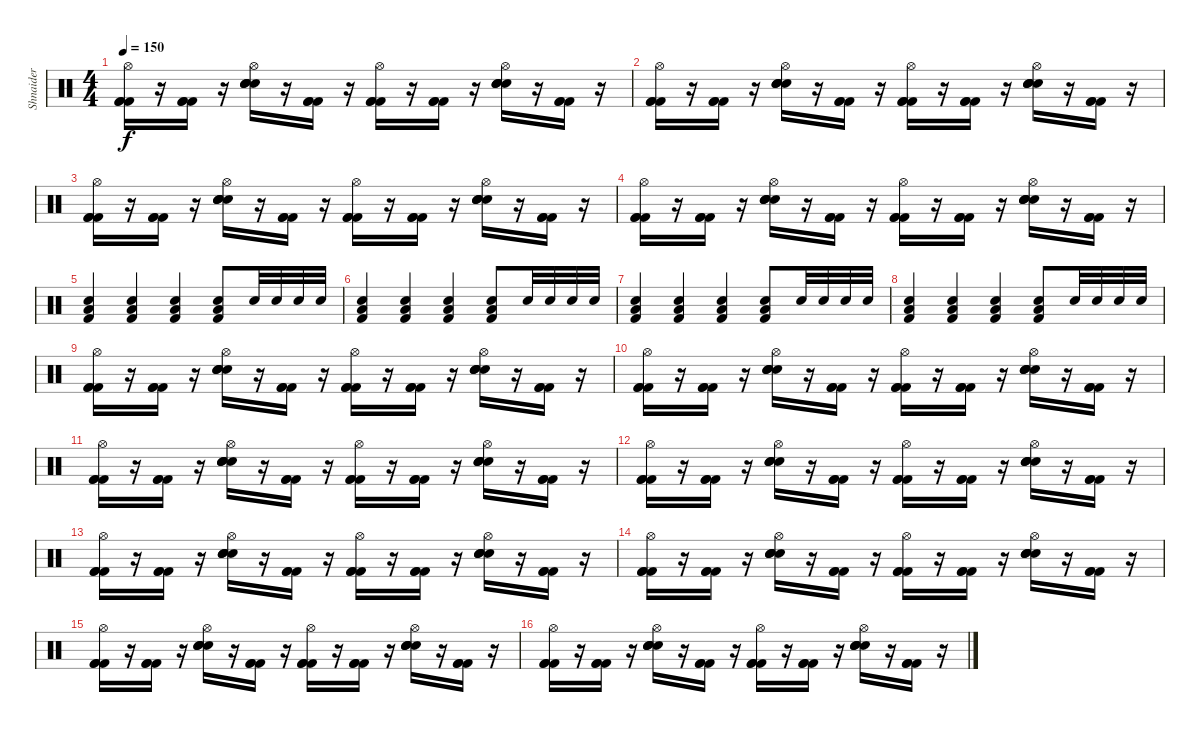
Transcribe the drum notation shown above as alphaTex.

\track ("Shnaider" "Shnaider") {instrument percussion}
\staff {score}
\articulation defaults
\ts (4 4)
\tempo 150
\clef neutral
\ks c
("Kick (hit) 2" "Kick (hit) 2" "Kick (hit) 2" "Hi-Hat (open)").16{dy f} r.16 ("Kick (hit) 2" "Kick (hit) 2" "Kick (hit) 2").16 r.16 ("Electric Snare (hit)" "Electric Snare (hit)" "Electric Snare (hit)" "Electric Snare (hit)" "Hi-Hat (open)").16 r.16 ("Kick (hit) 2" "Kick (hit) 2" "Kick (hit) 2").16 r.16 ("Kick (hit) 2" "Kick (hit) 2" "Kick (hit) 2" "Hi-Hat (open)").16 r.16 ("Kick (hit) 2" "Kick (hit) 2" "Kick (hit) 2").16 r.16 ("Electric Snare (hit)" "Electric Snare (hit)" "Electric Snare (hit)" "Electric Snare (hit)" "Hi-Hat (open)").16 r.16 ("Kick (hit) 2" "Kick (hit) 2" "Kick (hit) 2").16 r.16 |
("Kick (hit) 2" "Kick (hit) 2" "Kick (hit) 2" "Hi-Hat (open)").16 r.16 ("Kick (hit) 2" "Kick (hit) 2" "Kick (hit) 2").16 r.16 ("Electric Snare (hit)" "Electric Snare (hit)" "Electric Snare (hit)" "Electric Snare (hit)" "Hi-Hat (open)").16 r.16 ("Kick (hit) 2" "Kick (hit) 2" "Kick (hit) 2").16 r.16 ("Kick (hit) 2" "Kick (hit) 2" "Kick (hit) 2" "Hi-Hat (open)").16 r.16 ("Kick (hit) 2" "Kick (hit) 2" "Kick (hit) 2").16 r.16 ("Electric Snare (hit)" "Electric Snare (hit)" "Electric Snare (hit)" "Electric Snare (hit)" "Hi-Hat (open)").16 r.16 ("Kick (hit) 2" "Kick (hit) 2" "Kick (hit) 2").16 r.16 |
("Kick (hit) 2" "Kick (hit) 2" "Kick (hit) 2" "Hi-Hat (open)").16 r.16 ("Kick (hit) 2" "Kick (hit) 2" "Kick (hit) 2").16 r.16 ("Electric Snare (hit)" "Electric Snare (hit)" "Electric Snare (hit)" "Electric Snare (hit)" "Hi-Hat (open)").16 r.16 ("Kick (hit) 2" "Kick (hit) 2" "Kick (hit) 2").16 r.16 ("Kick (hit) 2" "Kick (hit) 2" "Kick (hit) 2" "Hi-Hat (open)").16 r.16 ("Kick (hit) 2" "Kick (hit) 2" "Kick (hit) 2").16 r.16 ("Electric Snare (hit)" "Electric Snare (hit)" "Electric Snare (hit)" "Electric Snare (hit)" "Hi-Hat (open)").16 r.16 ("Kick (hit) 2" "Kick (hit) 2" "Kick (hit) 2").16 r.16 |
("Kick (hit) 2" "Kick (hit) 2" "Kick (hit) 2" "Hi-Hat (open)").16 r.16 ("Kick (hit) 2" "Kick (hit) 2" "Kick (hit) 2").16 r.16 ("Electric Snare (hit)" "Electric Snare (hit)" "Electric Snare (hit)" "Electric Snare (hit)" "Hi-Hat (open)").16 r.16 ("Kick (hit) 2" "Kick (hit) 2" "Kick (hit) 2").16 r.16 ("Kick (hit) 2" "Kick (hit) 2" "Kick (hit) 2" "Hi-Hat (open)").16 r.16 ("Kick (hit) 2" "Kick (hit) 2" "Kick (hit) 2").16 r.16 ("Electric Snare (hit)" "Electric Snare (hit)" "Electric Snare (hit)" "Electric Snare (hit)" "Hi-Hat (open)").16 r.16 ("Kick (hit) 2" "Kick (hit) 2" "Kick (hit) 2").16 r.16 |
("Kick (hit) 2" "Electric Snare (hit)" "Low Floor Tom (hit)").4 ("Kick (hit) 2" "Electric Snare (hit)" "Low Floor Tom (hit)").4 ("Kick (hit) 2" "Electric Snare (hit)" "Low Floor Tom (hit)").4 ("Kick (hit) 2" "Electric Snare (hit)" "Low Floor Tom (hit)").8 "Electric Snare (hit)".32 "Electric Snare (hit)".32 "Electric Snare (hit)".32 "Electric Snare (hit)".32 |
("Kick (hit) 2" "Electric Snare (hit)" "Low Floor Tom (hit)").4 ("Kick (hit) 2" "Electric Snare (hit)" "Low Floor Tom (hit)").4 ("Kick (hit) 2" "Electric Snare (hit)" "Low Floor Tom (hit)").4 ("Kick (hit) 2" "Electric Snare (hit)" "Low Floor Tom (hit)").8 "Electric Snare (hit)".32 "Electric Snare (hit)".32 "Electric Snare (hit)".32 "Electric Snare (hit)".32 |
("Kick (hit) 2" "Electric Snare (hit)" "Low Floor Tom (hit)").4 ("Kick (hit) 2" "Electric Snare (hit)" "Low Floor Tom (hit)").4 ("Kick (hit) 2" "Electric Snare (hit)" "Low Floor Tom (hit)").4 ("Kick (hit) 2" "Electric Snare (hit)" "Low Floor Tom (hit)").8 "Electric Snare (hit)".32 "Electric Snare (hit)".32 "Electric Snare (hit)".32 "Electric Snare (hit)".32 |
("Kick (hit) 2" "Electric Snare (hit)" "Low Floor Tom (hit)").4 ("Kick (hit) 2" "Electric Snare (hit)" "Low Floor Tom (hit)").4 ("Kick (hit) 2" "Electric Snare (hit)" "Low Floor Tom (hit)").4 ("Kick (hit) 2" "Electric Snare (hit)" "Low Floor Tom (hit)").8 "Electric Snare (hit)".32 "Electric Snare (hit)".32 "Electric Snare (hit)".32 "Electric Snare (hit)".32 |
("Kick (hit) 2" "Kick (hit) 2" "Kick (hit) 2" "Hi-Hat (open)").16 r.16 ("Kick (hit) 2" "Kick (hit) 2" "Kick (hit) 2").16 r.16 ("Electric Snare (hit)" "Electric Snare (hit)" "Electric Snare (hit)" "Electric Snare (hit)" "Hi-Hat (open)").16 r.16 ("Kick (hit) 2" "Kick (hit) 2" "Kick (hit) 2").16 r.16 ("Kick (hit) 2" "Kick (hit) 2" "Kick (hit) 2" "Hi-Hat (open)").16 r.16 ("Kick (hit) 2" "Kick (hit) 2" "Kick (hit) 2").16 r.16 ("Electric Snare (hit)" "Electric Snare (hit)" "Electric Snare (hit)" "Electric Snare (hit)" "Hi-Hat (open)").16 r.16 ("Kick (hit) 2" "Kick (hit) 2" "Kick (hit) 2").16 r.16 |
("Kick (hit) 2" "Kick (hit) 2" "Kick (hit) 2" "Hi-Hat (open)").16 r.16 ("Kick (hit) 2" "Kick (hit) 2" "Kick (hit) 2").16 r.16 ("Electric Snare (hit)" "Electric Snare (hit)" "Electric Snare (hit)" "Electric Snare (hit)" "Hi-Hat (open)").16 r.16 ("Kick (hit) 2" "Kick (hit) 2" "Kick (hit) 2").16 r.16 ("Kick (hit) 2" "Kick (hit) 2" "Kick (hit) 2" "Hi-Hat (open)").16 r.16 ("Kick (hit) 2" "Kick (hit) 2" "Kick (hit) 2").16 r.16 ("Electric Snare (hit)" "Electric Snare (hit)" "Electric Snare (hit)" "Electric Snare (hit)" "Hi-Hat (open)").16 r.16 ("Kick (hit) 2" "Kick (hit) 2" "Kick (hit) 2").16 r.16 |
("Kick (hit) 2" "Kick (hit) 2" "Kick (hit) 2" "Hi-Hat (open)").16 r.16 ("Kick (hit) 2" "Kick (hit) 2" "Kick (hit) 2").16 r.16 ("Electric Snare (hit)" "Electric Snare (hit)" "Electric Snare (hit)" "Electric Snare (hit)" "Hi-Hat (open)").16 r.16 ("Kick (hit) 2" "Kick (hit) 2" "Kick (hit) 2").16 r.16 ("Kick (hit) 2" "Kick (hit) 2" "Kick (hit) 2" "Hi-Hat (open)").16 r.16 ("Kick (hit) 2" "Kick (hit) 2" "Kick (hit) 2").16 r.16 ("Electric Snare (hit)" "Electric Snare (hit)" "Electric Snare (hit)" "Electric Snare (hit)" "Hi-Hat (open)").16 r.16 ("Kick (hit) 2" "Kick (hit) 2" "Kick (hit) 2").16 r.16 |
("Kick (hit) 2" "Kick (hit) 2" "Kick (hit) 2" "Hi-Hat (open)").16 r.16 ("Kick (hit) 2" "Kick (hit) 2" "Kick (hit) 2").16 r.16 ("Electric Snare (hit)" "Electric Snare (hit)" "Electric Snare (hit)" "Electric Snare (hit)" "Hi-Hat (open)").16 r.16 ("Kick (hit) 2" "Kick (hit) 2" "Kick (hit) 2").16 r.16 ("Kick (hit) 2" "Kick (hit) 2" "Kick (hit) 2" "Hi-Hat (open)").16 r.16 ("Kick (hit) 2" "Kick (hit) 2" "Kick (hit) 2").16 r.16 ("Electric Snare (hit)" "Electric Snare (hit)" "Electric Snare (hit)" "Electric Snare (hit)" "Hi-Hat (open)").16 r.16 ("Kick (hit) 2" "Kick (hit) 2" "Kick (hit) 2").16 r.16 |
("Kick (hit) 2" "Kick (hit) 2" "Kick (hit) 2" "Hi-Hat (open)").16 r.16 ("Kick (hit) 2" "Kick (hit) 2" "Kick (hit) 2").16 r.16 ("Electric Snare (hit)" "Electric Snare (hit)" "Electric Snare (hit)" "Electric Snare (hit)" "Hi-Hat (open)").16 r.16 ("Kick (hit) 2" "Kick (hit) 2" "Kick (hit) 2").16 r.16 ("Kick (hit) 2" "Kick (hit) 2" "Kick (hit) 2" "Hi-Hat (open)").16 r.16 ("Kick (hit) 2" "Kick (hit) 2" "Kick (hit) 2").16 r.16 ("Electric Snare (hit)" "Electric Snare (hit)" "Electric Snare (hit)" "Electric Snare (hit)" "Hi-Hat (open)").16 r.16 ("Kick (hit) 2" "Kick (hit) 2" "Kick (hit) 2").16 r.16 |
("Kick (hit) 2" "Kick (hit) 2" "Kick (hit) 2" "Hi-Hat (open)").16 r.16 ("Kick (hit) 2" "Kick (hit) 2" "Kick (hit) 2").16 r.16 ("Electric Snare (hit)" "Electric Snare (hit)" "Electric Snare (hit)" "Electric Snare (hit)" "Hi-Hat (open)").16 r.16 ("Kick (hit) 2" "Kick (hit) 2" "Kick (hit) 2").16 r.16 ("Kick (hit) 2" "Kick (hit) 2" "Kick (hit) 2" "Hi-Hat (open)").16 r.16 ("Kick (hit) 2" "Kick (hit) 2" "Kick (hit) 2").16 r.16 ("Electric Snare (hit)" "Electric Snare (hit)" "Electric Snare (hit)" "Electric Snare (hit)" "Hi-Hat (open)").16 r.16 ("Kick (hit) 2" "Kick (hit) 2" "Kick (hit) 2").16 r.16 |
("Kick (hit) 2" "Kick (hit) 2" "Kick (hit) 2" "Hi-Hat (open)").16 r.16 ("Kick (hit) 2" "Kick (hit) 2" "Kick (hit) 2").16 r.16 ("Electric Snare (hit)" "Electric Snare (hit)" "Electric Snare (hit)" "Electric Snare (hit)" "Hi-Hat (open)").16 r.16 ("Kick (hit) 2" "Kick (hit) 2" "Kick (hit) 2").16 r.16 ("Kick (hit) 2" "Kick (hit) 2" "Kick (hit) 2" "Hi-Hat (open)").16 r.16 ("Kick (hit) 2" "Kick (hit) 2" "Kick (hit) 2").16 r.16 ("Electric Snare (hit)" "Electric Snare (hit)" "Electric Snare (hit)" "Electric Snare (hit)" "Hi-Hat (open)").16 r.16 ("Kick (hit) 2" "Kick (hit) 2" "Kick (hit) 2").16 r.16 |
("Kick (hit) 2" "Kick (hit) 2" "Kick (hit) 2" "Hi-Hat (open)").16 r.16 ("Kick (hit) 2" "Kick (hit) 2" "Kick (hit) 2").16 r.16 ("Electric Snare (hit)" "Electric Snare (hit)" "Electric Snare (hit)" "Electric Snare (hit)" "Hi-Hat (open)").16 r.16 ("Kick (hit) 2" "Kick (hit) 2" "Kick (hit) 2").16 r.16 ("Kick (hit) 2" "Kick (hit) 2" "Kick (hit) 2" "Hi-Hat (open)").16 r.16 ("Kick (hit) 2" "Kick (hit) 2" "Kick (hit) 2").16 r.16 ("Electric Snare (hit)" "Electric Snare (hit)" "Electric Snare (hit)" "Electric Snare (hit)" "Hi-Hat (open)").16 r.16 ("Kick (hit) 2" "Kick (hit) 2" "Kick (hit) 2").16 r.16
